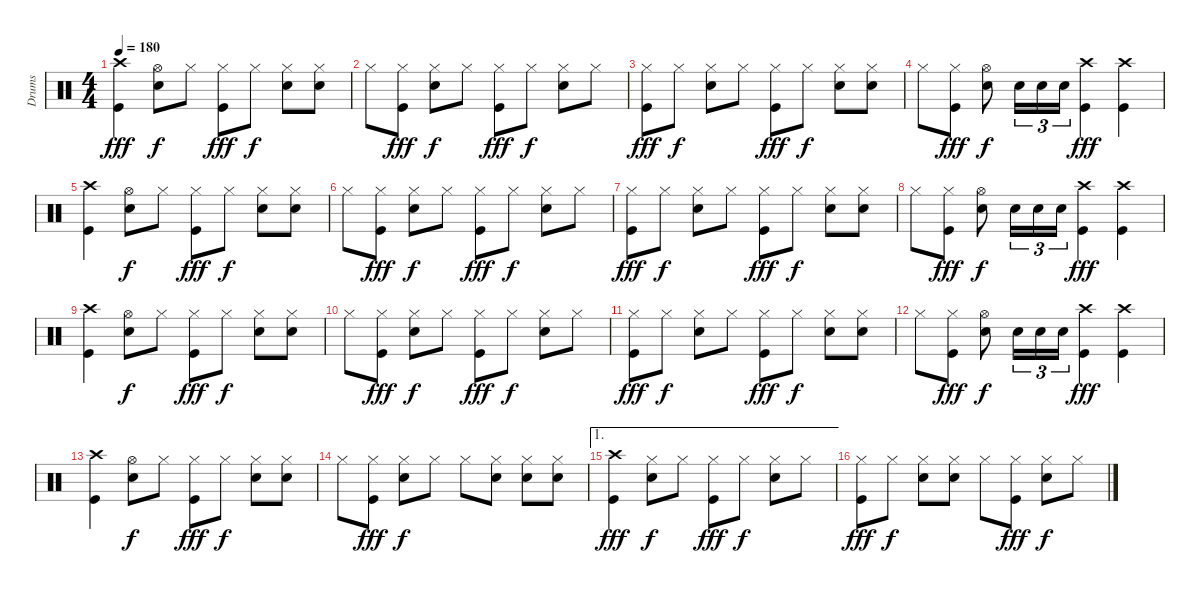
\track ("Drums" "Drums") {instrument percussion}
\staff {score}
\articulation defaults
\ts (4 4)
\tempo 180
\clef neutral
\ks c
("Crash high (hit)" "Kick (hit)").4{dy fff} ("Hi-Hat (open)" "Snare (hit) 2").8{dy f} "Hi-Hat (closed)".8 ("Hi-Hat (closed)" "Kick (hit)").8{dy fff} "Hi-Hat (closed)".8{dy f} ("Hi-Hat (closed)" "Snare (hit) 2").8 ("Hi-Hat (closed)" "Snare (hit) 2").8 |
"Hi-Hat (closed)".8 ("Hi-Hat (closed)" "Kick (hit)").8{dy fff} ("Hi-Hat (closed)" "Snare (hit) 2").8{dy f} "Hi-Hat (closed)".8 ("Hi-Hat (closed)" "Kick (hit)").8{dy fff} "Hi-Hat (closed)".8{dy f} ("Hi-Hat (closed)" "Snare (hit) 2").8 "Hi-Hat (closed)".8 |
("Hi-Hat (closed)" "Kick (hit)").8{dy fff} "Hi-Hat (closed)".8{dy f} ("Hi-Hat (closed)" "Snare (hit) 2").8 "Hi-Hat (closed)".8 ("Hi-Hat (closed)" "Kick (hit)").8{dy fff} "Hi-Hat (closed)".8{dy f} ("Hi-Hat (closed)" "Snare (hit) 2").8 ("Hi-Hat (closed)" "Snare (hit) 2").8 |
"Hi-Hat (closed)".8 ("Hi-Hat (closed)" "Kick (hit)").8{dy fff} ("Hi-Hat (open)" "Snare (hit) 2").8{dy f} "Snare (hit) 2".16{tu (3 2)} "Snare (hit) 2".16{tu (3 2)} "Snare (hit) 2".16{tu (3 2)} ("Crash high (hit)" "Kick (hit)").4{dy fff} ("Crash high (hit)" "Kick (hit)").4 |
("Crash high (hit)" "Kick (hit)").4 ("Hi-Hat (open)" "Snare (hit) 2").8{dy f} "Hi-Hat (closed)".8 ("Hi-Hat (closed)" "Kick (hit)").8{dy fff} "Hi-Hat (closed)".8{dy f} ("Hi-Hat (closed)" "Snare (hit) 2").8 ("Hi-Hat (closed)" "Snare (hit) 2").8 |
"Hi-Hat (closed)".8 ("Hi-Hat (closed)" "Kick (hit)").8{dy fff} ("Hi-Hat (closed)" "Snare (hit) 2").8{dy f} "Hi-Hat (closed)".8 ("Hi-Hat (closed)" "Kick (hit)").8{dy fff} "Hi-Hat (closed)".8{dy f} ("Hi-Hat (closed)" "Snare (hit) 2").8 "Hi-Hat (closed)".8 |
("Hi-Hat (closed)" "Kick (hit)").8{dy fff} "Hi-Hat (closed)".8{dy f} ("Hi-Hat (closed)" "Snare (hit) 2").8 "Hi-Hat (closed)".8 ("Hi-Hat (closed)" "Kick (hit)").8{dy fff} "Hi-Hat (closed)".8{dy f} ("Hi-Hat (closed)" "Snare (hit) 2").8 ("Hi-Hat (closed)" "Snare (hit) 2").8 |
"Hi-Hat (closed)".8 ("Hi-Hat (closed)" "Kick (hit)").8{dy fff} ("Hi-Hat (open)" "Snare (hit) 2").8{dy f} "Snare (hit) 2".16{tu (3 2)} "Snare (hit) 2".16{tu (3 2)} "Snare (hit) 2".16{tu (3 2)} ("Crash high (hit)" "Kick (hit)").4{dy fff} ("Crash high (hit)" "Kick (hit)").4 |
("Crash high (hit)" "Kick (hit)").4 ("Hi-Hat (open)" "Snare (hit) 2").8{dy f} "Hi-Hat (closed)".8 ("Hi-Hat (closed)" "Kick (hit)").8{dy fff} "Hi-Hat (closed)".8{dy f} ("Hi-Hat (closed)" "Snare (hit) 2").8 ("Hi-Hat (closed)" "Snare (hit) 2").8 |
"Hi-Hat (closed)".8 ("Hi-Hat (closed)" "Kick (hit)").8{dy fff} ("Hi-Hat (closed)" "Snare (hit) 2").8{dy f} "Hi-Hat (closed)".8 ("Hi-Hat (closed)" "Kick (hit)").8{dy fff} "Hi-Hat (closed)".8{dy f} ("Hi-Hat (closed)" "Snare (hit) 2").8 "Hi-Hat (closed)".8 |
("Hi-Hat (closed)" "Kick (hit)").8{dy fff} "Hi-Hat (closed)".8{dy f} ("Hi-Hat (closed)" "Snare (hit) 2").8 "Hi-Hat (closed)".8 ("Hi-Hat (closed)" "Kick (hit)").8{dy fff} "Hi-Hat (closed)".8{dy f} ("Hi-Hat (closed)" "Snare (hit) 2").8 ("Hi-Hat (closed)" "Snare (hit) 2").8 |
"Hi-Hat (closed)".8 ("Hi-Hat (closed)" "Kick (hit)").8{dy fff} ("Hi-Hat (open)" "Snare (hit) 2").8{dy f} "Snare (hit) 2".16{tu (3 2)} "Snare (hit) 2".16{tu (3 2)} "Snare (hit) 2".16{tu (3 2)} ("Crash high (hit)" "Kick (hit)").4{dy fff} ("Crash high (hit)" "Kick (hit)").4 |
("Crash high (hit)" "Kick (hit)").4 ("Hi-Hat (open)" "Snare (hit) 2").8{dy f} "Hi-Hat (closed)".8 ("Hi-Hat (closed)" "Kick (hit)").8{dy fff} "Hi-Hat (closed)".8{dy f} ("Hi-Hat (closed)" "Snare (hit) 2").8 ("Hi-Hat (closed)" "Snare (hit) 2").8 |
"Hi-Hat (closed)".8 ("Hi-Hat (closed)" "Kick (hit)").8{dy fff} ("Hi-Hat (closed)" "Snare (hit) 2").8{dy f} "Hi-Hat (closed)".8 "Hi-Hat (closed)".8 ("Hi-Hat (closed)" "Snare (hit) 2").8 ("Hi-Hat (closed)" "Snare (hit) 2").8 ("Hi-Hat (closed)" "Snare (hit) 2").8 |
\ae 1
("Crash high (hit)" "Kick (hit)").4{dy fff} ("Hi-Hat (closed)" "Snare (hit) 2").8{dy f} "Hi-Hat (closed)".8 ("Hi-Hat (closed)" "Kick (hit)").8{dy fff} "Hi-Hat (closed)".8{dy f} ("Hi-Hat (closed)" "Snare (hit) 2").8 "Hi-Hat (closed)".8 |
("Hi-Hat (closed)" "Kick (hit)").8{dy fff} "Hi-Hat (closed)".8{dy f} ("Hi-Hat (closed)" "Snare (hit) 2").8 ("Hi-Hat (closed)" "Snare (hit) 2").8 "Hi-Hat (closed)".8 ("Hi-Hat (closed)" "Kick (hit)").8{dy fff} ("Hi-Hat (closed)" "Snare (hit) 2").8{dy f} "Hi-Hat (closed)".8
